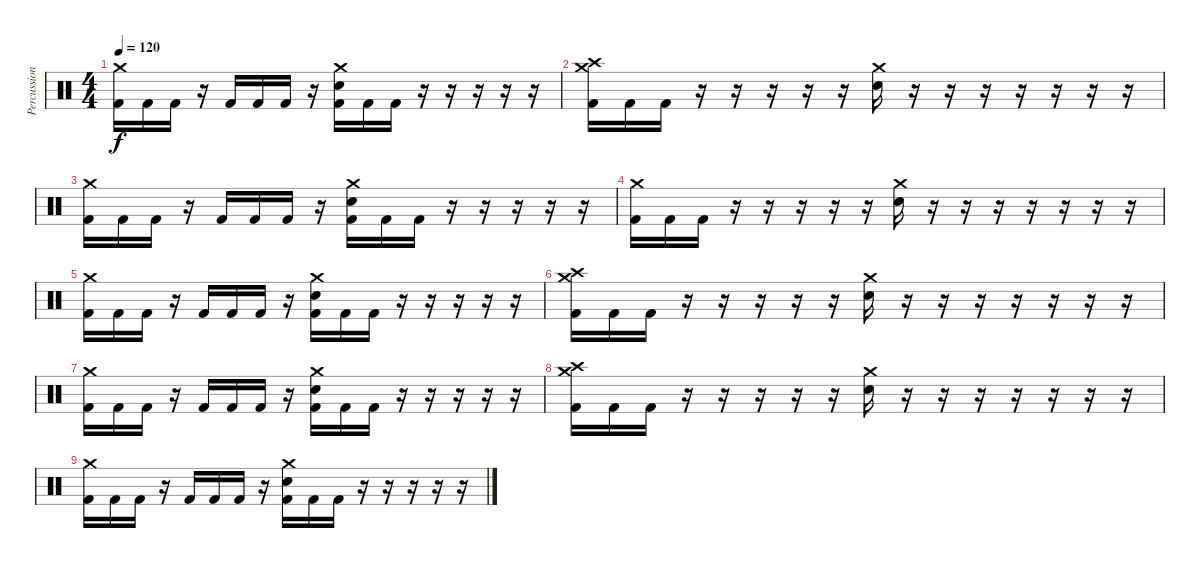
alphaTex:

\track ("Percussion" "Percussion") {instrument percussion}
\staff {score}
\articulation defaults
\ts (4 4)
\tempo 120
\clef neutral
\ks c
("Crash medium (hit)" "Kick (hit) 2").16{dy f} "Kick (hit) 2".16 "Kick (hit) 2".16 r.16 "Kick (hit) 2".16 "Kick (hit) 2".16 "Kick (hit) 2".16 r.16 ("Crash medium (hit)" "Electric Snare (hit)" "Kick (hit) 2").16 "Kick (hit) 2".16 "Kick (hit) 2".16 r.16 r.16 r.16 r.16 r.16 |
("Crash medium (hit)" "Crash high (hit)" "Kick (hit) 2").16 "Kick (hit) 2".16 "Kick (hit) 2".16 r.16 r.16 r.16 r.16 r.16 ("Crash medium (hit)" "Electric Snare (hit)").16 r.16 r.16 r.16 r.16 r.16 r.16 r.16 |
("Crash medium (hit)" "Kick (hit) 2").16 "Kick (hit) 2".16 "Kick (hit) 2".16 r.16 "Kick (hit) 2".16 "Kick (hit) 2".16 "Kick (hit) 2".16 r.16 ("Crash medium (hit)" "Electric Snare (hit)" "Kick (hit) 2").16 "Kick (hit) 2".16 "Kick (hit) 2".16 r.16 r.16 r.16 r.16 r.16 |
("Crash medium (hit)" "Kick (hit) 2").16 "Kick (hit) 2".16 "Kick (hit) 2".16 r.16 r.16 r.16 r.16 r.16 ("Crash medium (hit)" "Electric Snare (hit)").16 r.16 r.16 r.16 r.16 r.16 r.16 r.16 |
("Crash medium (hit)" "Kick (hit) 2").16 "Kick (hit) 2".16 "Kick (hit) 2".16 r.16 "Kick (hit) 2".16 "Kick (hit) 2".16 "Kick (hit) 2".16 r.16 ("Crash medium (hit)" "Electric Snare (hit)" "Kick (hit) 2").16 "Kick (hit) 2".16 "Kick (hit) 2".16 r.16 r.16 r.16 r.16 r.16 |
("Crash medium (hit)" "Crash high (hit)" "Kick (hit) 2").16 "Kick (hit) 2".16 "Kick (hit) 2".16 r.16 r.16 r.16 r.16 r.16 ("Crash medium (hit)" "Electric Snare (hit)").16 r.16 r.16 r.16 r.16 r.16 r.16 r.16 |
("Crash medium (hit)" "Kick (hit) 2").16 "Kick (hit) 2".16 "Kick (hit) 2".16 r.16 "Kick (hit) 2".16 "Kick (hit) 2".16 "Kick (hit) 2".16 r.16 ("Crash medium (hit)" "Electric Snare (hit)" "Kick (hit) 2").16 "Kick (hit) 2".16 "Kick (hit) 2".16 r.16 r.16 r.16 r.16 r.16 |
("Crash medium (hit)" "Crash high (hit)" "Kick (hit) 2").16 "Kick (hit) 2".16 "Kick (hit) 2".16 r.16 r.16 r.16 r.16 r.16 ("Crash medium (hit)" "Electric Snare (hit)").16 r.16 r.16 r.16 r.16 r.16 r.16 r.16 |
("Crash medium (hit)" "Kick (hit) 2").16 "Kick (hit) 2".16 "Kick (hit) 2".16 r.16 "Kick (hit) 2".16 "Kick (hit) 2".16 "Kick (hit) 2".16 r.16 ("Crash medium (hit)" "Electric Snare (hit)" "Kick (hit) 2").16 "Kick (hit) 2".16 "Kick (hit) 2".16 r.16 r.16 r.16 r.16 r.16
